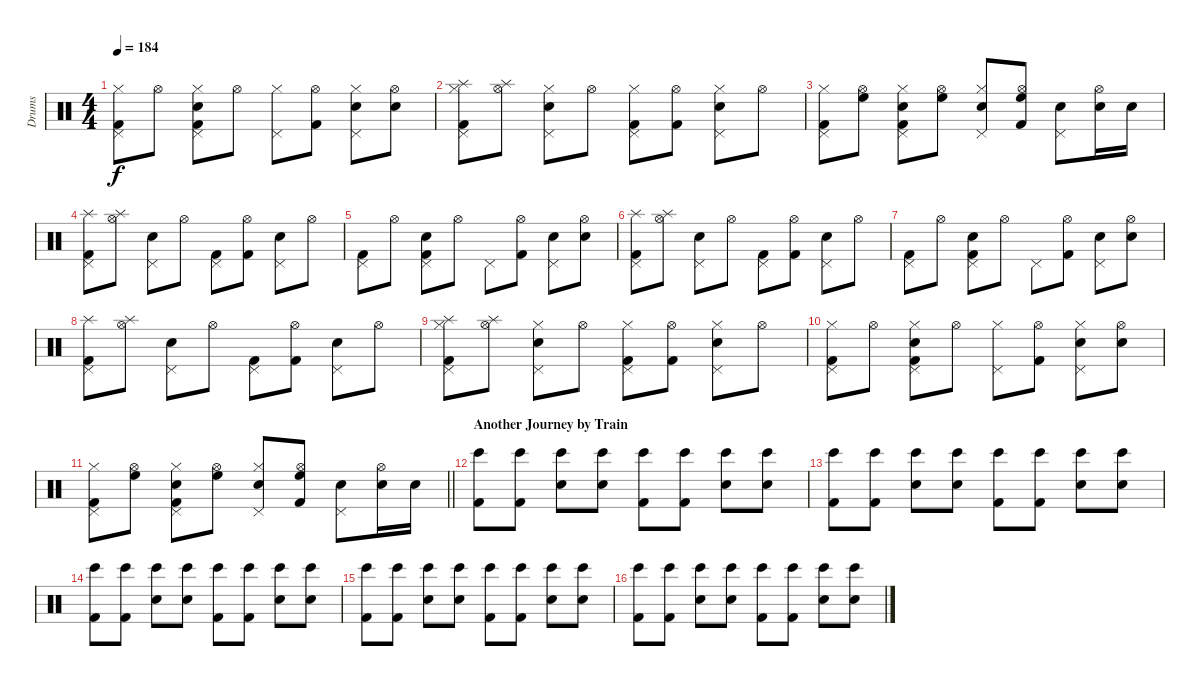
\track ("Drums" "Drums") {instrument percussion}
\staff {score}
\articulation defaults
\ts (4 4)
\tempo 184
\clef neutral
\ks c
("Pedal Hi-Hat (hit)" "Hi-Hat (closed)" "Kick (hit) 2").8{dy f} "Hi-Hat (open)".8 ("Pedal Hi-Hat (hit)" "Hi-Hat (closed)" "Snare (hit) 2" "Kick (hit) 2").8 "Hi-Hat (open)".8 ("Pedal Hi-Hat (hit)" "Hi-Hat (closed)").8 ("Hi-Hat (open)" "Kick (hit) 2").8 ("Pedal Hi-Hat (hit)" "Hi-Hat (closed)" "Snare (hit) 2").8 ("Hi-Hat (open)" "Snare (hit) 2").8 |
("Pedal Hi-Hat (hit)" "Hi-Hat (closed)" "Splash (hit)" "Kick (hit) 2").8 ("Hi-Hat (open)" "Splash (hit)").8 ("Pedal Hi-Hat (hit)" "Hi-Hat (closed)" "Snare (hit) 2").8 "Hi-Hat (open)".8 ("Pedal Hi-Hat (hit)" "Hi-Hat (closed)" "Kick (hit) 2").8 ("Hi-Hat (open)" "Kick (hit) 2").8 ("Pedal Hi-Hat (hit)" "Hi-Hat (closed)" "Snare (hit) 2").8 "Hi-Hat (open)".8 |
("Pedal Hi-Hat (hit)" "Hi-Hat (closed)" "Kick (hit) 2").8 ("Hi-Hat (open)" "High Floor Tom (hit)").8 ("Pedal Hi-Hat (hit)" "Hi-Hat (closed)" "Snare (hit) 2" "Kick (hit) 2").8 ("Hi-Hat (open)" "High Floor Tom (hit)").8 ("Pedal Hi-Hat (hit)" "Hi-Hat (closed)" "Snare (hit) 2").8 ("Hi-Hat (open)" "High Floor Tom (hit)" "Kick (hit) 2").8 ("Pedal Hi-Hat (hit)" "Snare (hit) 2").8 ("Hi-Hat (open)" "Snare (hit) 2").16 "Snare (hit) 2".16 |
("Pedal Hi-Hat (hit)" "Splash (hit)" "Kick (hit) 2").8 ("Hi-Hat (open)" "Splash (hit)").8 ("Pedal Hi-Hat (hit)" "Snare (hit) 2").8 "Hi-Hat (open)".8 ("Pedal Hi-Hat (hit)" "Kick (hit) 2").8 ("Hi-Hat (open)" "Kick (hit) 2").8 ("Pedal Hi-Hat (hit)" "Snare (hit) 2").8 "Hi-Hat (open)".8 |
("Pedal Hi-Hat (hit)" "Kick (hit) 2").8 "Hi-Hat (open)".8 ("Pedal Hi-Hat (hit)" "Snare (hit) 2" "Kick (hit) 2").8 "Hi-Hat (open)".8 "Pedal Hi-Hat (hit)".8 ("Hi-Hat (open)" "Kick (hit) 2").8 ("Pedal Hi-Hat (hit)" "Snare (hit) 2").8 ("Hi-Hat (open)" "Snare (hit) 2").8 |
("Pedal Hi-Hat (hit)" "Splash (hit)" "Kick (hit) 2").8 ("Hi-Hat (open)" "Splash (hit)").8 ("Pedal Hi-Hat (hit)" "Snare (hit) 2").8 "Hi-Hat (open)".8 ("Pedal Hi-Hat (hit)" "Kick (hit) 2").8 ("Hi-Hat (open)" "Kick (hit) 2").8 ("Pedal Hi-Hat (hit)" "Snare (hit) 2").8 "Hi-Hat (open)".8 |
("Pedal Hi-Hat (hit)" "Kick (hit) 2").8 "Hi-Hat (open)".8 ("Pedal Hi-Hat (hit)" "Snare (hit) 2" "Kick (hit) 2").8 "Hi-Hat (open)".8 "Pedal Hi-Hat (hit)".8 ("Hi-Hat (open)" "Kick (hit) 2").8 ("Pedal Hi-Hat (hit)" "Snare (hit) 2").8 ("Hi-Hat (open)" "Snare (hit) 2").8 |
("Pedal Hi-Hat (hit)" "Splash (hit)" "Kick (hit) 2").8 ("Hi-Hat (open)" "Splash (hit)").8 ("Pedal Hi-Hat (hit)" "Snare (hit) 2").8 "Hi-Hat (open)".8 ("Pedal Hi-Hat (hit)" "Kick (hit) 2").8 ("Hi-Hat (open)" "Kick (hit) 2").8 ("Pedal Hi-Hat (hit)" "Snare (hit) 2").8 "Hi-Hat (open)".8 |
("Pedal Hi-Hat (hit)" "Hi-Hat (closed)" "Splash (hit)" "Kick (hit) 2").8 ("Hi-Hat (open)" "Splash (hit)").8 ("Pedal Hi-Hat (hit)" "Hi-Hat (closed)" "Snare (hit) 2").8 "Hi-Hat (open)".8 ("Pedal Hi-Hat (hit)" "Hi-Hat (closed)" "Kick (hit) 2").8 ("Hi-Hat (open)" "Kick (hit) 2").8 ("Pedal Hi-Hat (hit)" "Hi-Hat (closed)" "Snare (hit) 2").8 "Hi-Hat (open)".8 |
("Pedal Hi-Hat (hit)" "Hi-Hat (closed)" "Kick (hit) 2").8 "Hi-Hat (open)".8 ("Pedal Hi-Hat (hit)" "Hi-Hat (closed)" "Snare (hit) 2" "Kick (hit) 2").8 "Hi-Hat (open)".8 ("Pedal Hi-Hat (hit)" "Hi-Hat (closed)").8 ("Hi-Hat (open)" "Kick (hit) 2").8 ("Pedal Hi-Hat (hit)" "Hi-Hat (closed)" "Snare (hit) 2").8 ("Hi-Hat (open)" "Snare (hit) 2").8 |
\barLineRight lightlight
("Pedal Hi-Hat (hit)" "Hi-Hat (closed)" "Kick (hit) 2").8 ("Hi-Hat (open)" "High Floor Tom (hit)").8 ("Pedal Hi-Hat (hit)" "Hi-Hat (closed)" "Snare (hit) 2" "Kick (hit) 2").8 ("Hi-Hat (open)" "High Floor Tom (hit)").8 ("Pedal Hi-Hat (hit)" "Hi-Hat (closed)" "Snare (hit) 2").8 ("Hi-Hat (open)" "High Floor Tom (hit)" "Kick (hit) 2").8 ("Pedal Hi-Hat (hit)" "Snare (hit) 2").8 ("Hi-Hat (open)" "Snare (hit) 2").16 "Snare (hit) 2".16 |
\section ("" "Another Journey by Train")
("Bongo High (hit)" "Kick (hit) 2").8 ("Bongo High (hit)" "Kick (hit) 2").8 ("Bongo High (hit)" "Snare (hit) 2").8 ("Bongo High (hit)" "Snare (hit) 2").8 ("Bongo High (hit)" "Kick (hit) 2").8 ("Bongo High (hit)" "Kick (hit) 2").8 ("Bongo High (hit)" "Snare (hit) 2").8 ("Bongo High (hit)" "Snare (hit) 2").8 |
("Bongo High (hit)" "Kick (hit) 2").8 ("Bongo High (hit)" "Kick (hit) 2").8 ("Bongo High (hit)" "Snare (hit) 2").8 ("Bongo High (hit)" "Snare (hit) 2").8 ("Bongo High (hit)" "Kick (hit) 2").8 ("Bongo High (hit)" "Kick (hit) 2").8 ("Bongo High (hit)" "Snare (hit) 2").8 ("Bongo High (hit)" "Snare (hit) 2").8 |
("Bongo High (hit)" "Kick (hit) 2").8 ("Bongo High (hit)" "Kick (hit) 2").8 ("Bongo High (hit)" "Snare (hit) 2").8 ("Bongo High (hit)" "Snare (hit) 2").8 ("Bongo High (hit)" "Kick (hit) 2").8 ("Bongo High (hit)" "Kick (hit) 2").8 ("Bongo High (hit)" "Snare (hit) 2").8 ("Bongo High (hit)" "Snare (hit) 2").8 |
("Bongo High (hit)" "Kick (hit) 2").8 ("Bongo High (hit)" "Kick (hit) 2").8 ("Bongo High (hit)" "Snare (hit) 2").8 ("Bongo High (hit)" "Snare (hit) 2").8 ("Bongo High (hit)" "Kick (hit) 2").8 ("Bongo High (hit)" "Kick (hit) 2").8 ("Bongo High (hit)" "Snare (hit) 2").8 ("Bongo High (hit)" "Snare (hit) 2").8 |
("Bongo High (hit)" "Kick (hit) 2").8 ("Bongo High (hit)" "Kick (hit) 2").8 ("Bongo High (hit)" "Snare (hit) 2").8 ("Bongo High (hit)" "Snare (hit) 2").8 ("Bongo High (hit)" "Kick (hit) 2").8 ("Bongo High (hit)" "Kick (hit) 2").8 ("Bongo High (hit)" "Snare (hit) 2").8 ("Bongo High (hit)" "Snare (hit) 2").8
